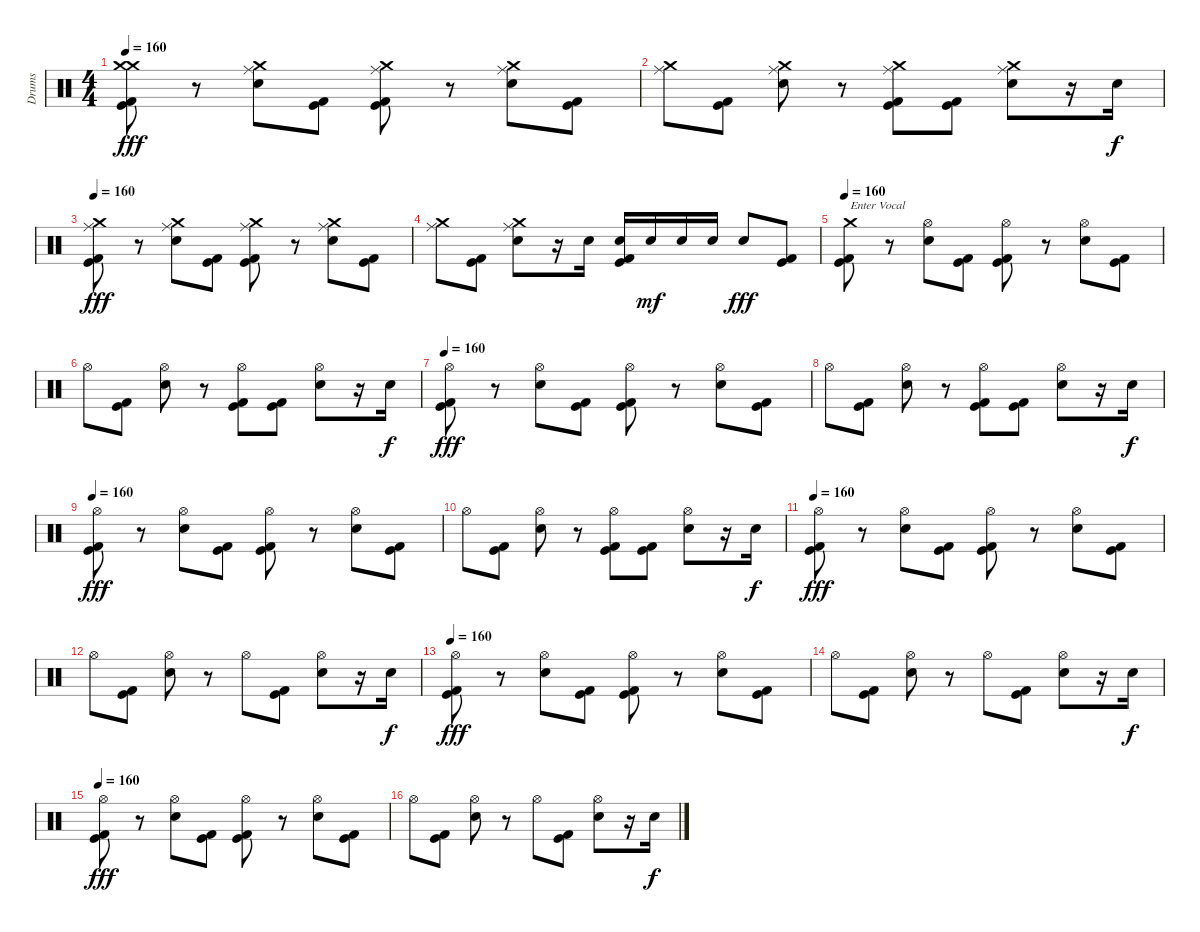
\track ("Drums" "Drums") {instrument percussion}
\staff {score}
\articulation defaults
\ts (4 4)
\tempo 160
\clef neutral
\ks c
("Kick (hit)" "Kick (hit) 2" "Crash medium (hit)" "Crash medium (hit)").8{dy fff} r.8 ("Electric Snare (hit)" "Ride (middle)" "Crash medium (hit)").8 ("Kick (hit)" "Kick (hit) 2").8 ("Kick (hit)" "Kick (hit) 2" "Ride (middle)" "Crash medium (hit)").8 r.8 ("Electric Snare (hit)" "Ride (middle)" "Crash medium (hit)").8 ("Kick (hit)" "Kick (hit) 2").8 |
("Ride (middle)" "Crash medium (hit)").8 ("Kick (hit)" "Kick (hit) 2").8 ("Electric Snare (hit)" "Ride (middle)" "Crash medium (hit)").8 r.8 ("Kick (hit)" "Kick (hit) 2" "Ride (middle)" "Crash medium (hit)").8 ("Kick (hit)" "Kick (hit) 2").8 ("Electric Snare (hit)" "Ride (middle)" "Crash medium (hit)").8 r.16 "Electric Snare (hit)".16{dy f} |
\tempo 160
("Kick (hit)" "Kick (hit) 2" "Ride (middle)" "Crash medium (hit)").8{dy fff} r.8 ("Electric Snare (hit)" "Ride (middle)" "Crash medium (hit)").8 ("Kick (hit)" "Kick (hit) 2").8 ("Kick (hit)" "Kick (hit) 2" "Ride (middle)" "Crash medium (hit)").8 r.8 ("Electric Snare (hit)" "Ride (middle)" "Crash medium (hit)").8 ("Kick (hit)" "Kick (hit) 2").8 |
("Ride (middle)" "Crash medium (hit)").8 ("Kick (hit)" "Kick (hit) 2").8 ("Electric Snare (hit)" "Ride (middle)" "Crash medium (hit)").8 r.16 "Electric Snare (hit)".16 ("Electric Snare (hit)" "Kick (hit)" "Kick (hit) 2").16 "Electric Snare (hit)".16{dy mf} "Electric Snare (hit)".16 "Electric Snare (hit)".16 "Electric Snare (hit)".8{dy fff} ("Kick (hit)" "Kick (hit) 2").8 |
\tempo 160
("Kick (hit)" "Kick (hit) 2" "Crash medium (hit)").8{txt "Enter Vocal"} r.8 ("Electric Snare (hit)" "Hi-Hat (open)").8 ("Kick (hit)" "Kick (hit) 2").8 ("Kick (hit)" "Kick (hit) 2" "Hi-Hat (open)").8 r.8 ("Electric Snare (hit)" "Hi-Hat (open)").8 ("Kick (hit)" "Kick (hit) 2").8 |
"Hi-Hat (open)".8 ("Kick (hit)" "Kick (hit) 2").8 ("Electric Snare (hit)" "Hi-Hat (open)").8 r.8 ("Kick (hit)" "Kick (hit) 2" "Hi-Hat (open)").8 ("Kick (hit)" "Kick (hit) 2").8 ("Electric Snare (hit)" "Hi-Hat (open)").8 r.16 "Electric Snare (hit)".16{dy f} |
\tempo 160
("Kick (hit)" "Kick (hit) 2" "Hi-Hat (open)").8{dy fff} r.8 ("Electric Snare (hit)" "Hi-Hat (open)").8 ("Kick (hit)" "Kick (hit) 2").8 ("Kick (hit)" "Kick (hit) 2" "Hi-Hat (open)").8 r.8 ("Electric Snare (hit)" "Hi-Hat (open)").8 ("Kick (hit)" "Kick (hit) 2").8 |
"Hi-Hat (open)".8 ("Kick (hit)" "Kick (hit) 2").8 ("Electric Snare (hit)" "Hi-Hat (open)").8 r.8 ("Kick (hit)" "Kick (hit) 2" "Hi-Hat (open)").8 ("Kick (hit)" "Kick (hit) 2").8 ("Electric Snare (hit)" "Hi-Hat (open)").8 r.16 "Electric Snare (hit)".16{dy f} |
\tempo 160
("Kick (hit)" "Kick (hit) 2" "Hi-Hat (open)").8{dy fff} r.8 ("Electric Snare (hit)" "Hi-Hat (open)").8 ("Kick (hit)" "Kick (hit) 2").8 ("Kick (hit)" "Kick (hit) 2" "Hi-Hat (open)").8 r.8 ("Electric Snare (hit)" "Hi-Hat (open)").8 ("Kick (hit)" "Kick (hit) 2").8 |
"Hi-Hat (open)".8 ("Kick (hit)" "Kick (hit) 2").8 ("Electric Snare (hit)" "Hi-Hat (open)").8 r.8 ("Kick (hit)" "Kick (hit) 2" "Hi-Hat (open)").8 ("Kick (hit)" "Kick (hit) 2").8 ("Electric Snare (hit)" "Hi-Hat (open)").8 r.16 "Electric Snare (hit)".16{dy f} |
\tempo 160
("Kick (hit)" "Kick (hit) 2" "Hi-Hat (open)").8{dy fff} r.8 ("Electric Snare (hit)" "Hi-Hat (open)").8 ("Kick (hit)" "Kick (hit) 2").8 ("Kick (hit)" "Kick (hit) 2" "Hi-Hat (open)").8 r.8 ("Electric Snare (hit)" "Hi-Hat (open)").8 ("Kick (hit)" "Kick (hit) 2").8 |
"Hi-Hat (open)".8 ("Kick (hit)" "Kick (hit) 2").8 ("Electric Snare (hit)" "Hi-Hat (open)").8 r.8 "Hi-Hat (open)".8 ("Kick (hit)" "Kick (hit) 2").8 ("Electric Snare (hit)" "Hi-Hat (open)").8 r.16 "Electric Snare (hit)".16{dy f} |
\tempo 160
("Kick (hit)" "Kick (hit) 2" "Hi-Hat (open)").8{dy fff} r.8 ("Electric Snare (hit)" "Hi-Hat (open)").8 ("Kick (hit)" "Kick (hit) 2").8 ("Kick (hit)" "Kick (hit) 2" "Hi-Hat (open)").8 r.8 ("Electric Snare (hit)" "Hi-Hat (open)").8 ("Kick (hit)" "Kick (hit) 2").8 |
"Hi-Hat (open)".8 ("Kick (hit)" "Kick (hit) 2").8 ("Electric Snare (hit)" "Hi-Hat (open)").8 r.8 "Hi-Hat (open)".8 ("Kick (hit)" "Kick (hit) 2").8 ("Electric Snare (hit)" "Hi-Hat (open)").8 r.16 "Electric Snare (hit)".16{dy f} |
\tempo 160
("Kick (hit)" "Kick (hit) 2" "Hi-Hat (open)").8{dy fff} r.8 ("Electric Snare (hit)" "Hi-Hat (open)").8 ("Kick (hit)" "Kick (hit) 2").8 ("Kick (hit)" "Kick (hit) 2" "Hi-Hat (open)").8 r.8 ("Electric Snare (hit)" "Hi-Hat (open)").8 ("Kick (hit)" "Kick (hit) 2").8 |
"Hi-Hat (open)".8 ("Kick (hit)" "Kick (hit) 2").8 ("Electric Snare (hit)" "Hi-Hat (open)").8 r.8 "Hi-Hat (open)".8 ("Kick (hit)" "Kick (hit) 2").8 ("Electric Snare (hit)" "Hi-Hat (open)").8 r.16 "Electric Snare (hit)".16{dy f}
